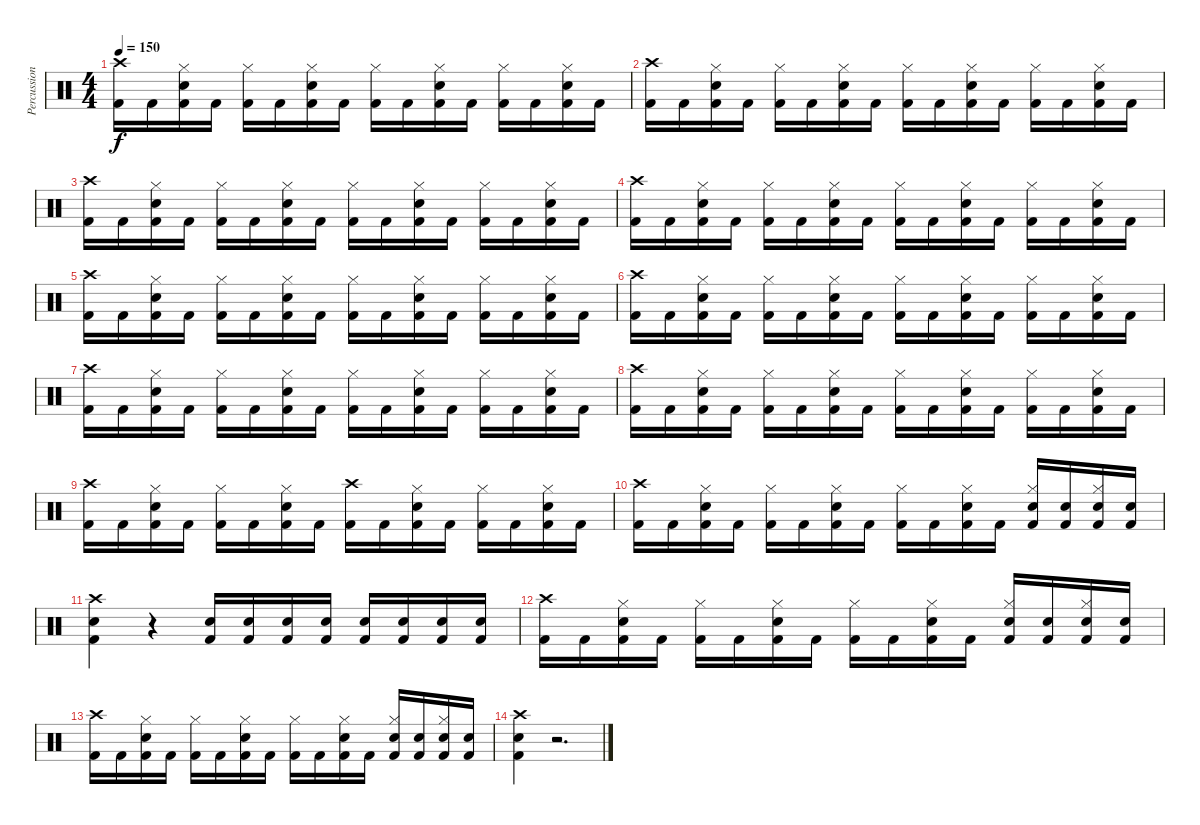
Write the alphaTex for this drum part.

\track ("Percussion" "Percussion") {instrument percussion}
\staff {score}
\articulation defaults
\ts (4 4)
\tempo 150
\clef neutral
\ks c
("Crash high (hit)" "Kick (hit) 2").16{dy f} "Kick (hit) 2".16 ("Hi-Hat (closed)" "Snare (hit) 2" "Kick (hit) 2").16 "Kick (hit) 2".16 ("Hi-Hat (closed)" "Kick (hit) 2").16 "Kick (hit) 2".16 ("Hi-Hat (closed)" "Snare (hit) 2" "Kick (hit) 2").16 "Kick (hit) 2".16 ("Hi-Hat (closed)" "Kick (hit) 2").16 "Kick (hit) 2".16 ("Hi-Hat (closed)" "Snare (hit) 2" "Kick (hit) 2").16 "Kick (hit) 2".16 ("Hi-Hat (closed)" "Kick (hit) 2").16 "Kick (hit) 2".16 ("Hi-Hat (closed)" "Snare (hit) 2" "Kick (hit) 2").16 "Kick (hit) 2".16 |
("Crash high (hit)" "Kick (hit) 2").16 "Kick (hit) 2".16 ("Hi-Hat (closed)" "Snare (hit) 2" "Kick (hit) 2").16 "Kick (hit) 2".16 ("Hi-Hat (closed)" "Kick (hit) 2").16 "Kick (hit) 2".16 ("Hi-Hat (closed)" "Snare (hit) 2" "Kick (hit) 2").16 "Kick (hit) 2".16 ("Hi-Hat (closed)" "Kick (hit) 2").16 "Kick (hit) 2".16 ("Hi-Hat (closed)" "Snare (hit) 2" "Kick (hit) 2").16 "Kick (hit) 2".16 ("Hi-Hat (closed)" "Kick (hit) 2").16 "Kick (hit) 2".16 ("Hi-Hat (closed)" "Snare (hit) 2" "Kick (hit) 2").16 "Kick (hit) 2".16 |
("Crash high (hit)" "Kick (hit) 2").16 "Kick (hit) 2".16 ("Hi-Hat (closed)" "Snare (hit) 2" "Kick (hit) 2").16 "Kick (hit) 2".16 ("Hi-Hat (closed)" "Kick (hit) 2").16 "Kick (hit) 2".16 ("Hi-Hat (closed)" "Snare (hit) 2" "Kick (hit) 2").16 "Kick (hit) 2".16 ("Hi-Hat (closed)" "Kick (hit) 2").16 "Kick (hit) 2".16 ("Hi-Hat (closed)" "Snare (hit) 2" "Kick (hit) 2").16 "Kick (hit) 2".16 ("Hi-Hat (closed)" "Kick (hit) 2").16 "Kick (hit) 2".16 ("Hi-Hat (closed)" "Snare (hit) 2" "Kick (hit) 2").16 "Kick (hit) 2".16 |
("Crash high (hit)" "Kick (hit) 2").16 "Kick (hit) 2".16 ("Hi-Hat (closed)" "Snare (hit) 2" "Kick (hit) 2").16 "Kick (hit) 2".16 ("Hi-Hat (closed)" "Kick (hit) 2").16 "Kick (hit) 2".16 ("Hi-Hat (closed)" "Snare (hit) 2" "Kick (hit) 2").16 "Kick (hit) 2".16 ("Hi-Hat (closed)" "Kick (hit) 2").16 "Kick (hit) 2".16 ("Hi-Hat (closed)" "Snare (hit) 2" "Kick (hit) 2").16 "Kick (hit) 2".16 ("Hi-Hat (closed)" "Kick (hit) 2").16 "Kick (hit) 2".16 ("Hi-Hat (closed)" "Snare (hit) 2" "Kick (hit) 2").16 "Kick (hit) 2".16 |
("Crash high (hit)" "Kick (hit) 2").16 "Kick (hit) 2".16 ("Hi-Hat (closed)" "Snare (hit) 2" "Kick (hit) 2").16 "Kick (hit) 2".16 ("Hi-Hat (closed)" "Kick (hit) 2").16 "Kick (hit) 2".16 ("Hi-Hat (closed)" "Snare (hit) 2" "Kick (hit) 2").16 "Kick (hit) 2".16 ("Hi-Hat (closed)" "Kick (hit) 2").16 "Kick (hit) 2".16 ("Hi-Hat (closed)" "Snare (hit) 2" "Kick (hit) 2").16 "Kick (hit) 2".16 ("Hi-Hat (closed)" "Kick (hit) 2").16 "Kick (hit) 2".16 ("Hi-Hat (closed)" "Snare (hit) 2" "Kick (hit) 2").16 "Kick (hit) 2".16 |
("Crash high (hit)" "Kick (hit) 2").16 "Kick (hit) 2".16 ("Hi-Hat (closed)" "Snare (hit) 2" "Kick (hit) 2").16 "Kick (hit) 2".16 ("Hi-Hat (closed)" "Kick (hit) 2").16 "Kick (hit) 2".16 ("Hi-Hat (closed)" "Snare (hit) 2" "Kick (hit) 2").16 "Kick (hit) 2".16 ("Hi-Hat (closed)" "Kick (hit) 2").16 "Kick (hit) 2".16 ("Hi-Hat (closed)" "Snare (hit) 2" "Kick (hit) 2").16 "Kick (hit) 2".16 ("Hi-Hat (closed)" "Kick (hit) 2").16 "Kick (hit) 2".16 ("Hi-Hat (closed)" "Snare (hit) 2" "Kick (hit) 2").16 "Kick (hit) 2".16 |
("Crash high (hit)" "Kick (hit) 2").16 "Kick (hit) 2".16 ("Hi-Hat (closed)" "Snare (hit) 2" "Kick (hit) 2").16 "Kick (hit) 2".16 ("Hi-Hat (closed)" "Kick (hit) 2").16 "Kick (hit) 2".16 ("Hi-Hat (closed)" "Snare (hit) 2" "Kick (hit) 2").16 "Kick (hit) 2".16 ("Hi-Hat (closed)" "Kick (hit) 2").16 "Kick (hit) 2".16 ("Hi-Hat (closed)" "Snare (hit) 2" "Kick (hit) 2").16 "Kick (hit) 2".16 ("Hi-Hat (closed)" "Kick (hit) 2").16 "Kick (hit) 2".16 ("Hi-Hat (closed)" "Snare (hit) 2" "Kick (hit) 2").16 "Kick (hit) 2".16 |
("Crash high (hit)" "Kick (hit) 2").16 "Kick (hit) 2".16 ("Hi-Hat (closed)" "Snare (hit) 2" "Kick (hit) 2").16 "Kick (hit) 2".16 ("Hi-Hat (closed)" "Kick (hit) 2").16 "Kick (hit) 2".16 ("Hi-Hat (closed)" "Snare (hit) 2" "Kick (hit) 2").16 "Kick (hit) 2".16 ("Hi-Hat (closed)" "Kick (hit) 2").16 "Kick (hit) 2".16 ("Hi-Hat (closed)" "Snare (hit) 2" "Kick (hit) 2").16 "Kick (hit) 2".16 ("Hi-Hat (closed)" "Kick (hit) 2").16 "Kick (hit) 2".16 ("Hi-Hat (closed)" "Snare (hit) 2" "Kick (hit) 2").16 "Kick (hit) 2".16 |
("Crash high (hit)" "Kick (hit) 2").16 "Kick (hit) 2".16 ("Hi-Hat (closed)" "Snare (hit) 2" "Kick (hit) 2").16 "Kick (hit) 2".16 ("Hi-Hat (closed)" "Kick (hit) 2").16 "Kick (hit) 2".16 ("Hi-Hat (closed)" "Snare (hit) 2" "Kick (hit) 2").16 "Kick (hit) 2".16 ("Crash high (hit)" "Kick (hit) 2").16 "Kick (hit) 2".16 ("Hi-Hat (closed)" "Snare (hit) 2" "Kick (hit) 2").16 "Kick (hit) 2".16 ("Hi-Hat (closed)" "Kick (hit) 2").16 "Kick (hit) 2".16 ("Hi-Hat (closed)" "Snare (hit) 2" "Kick (hit) 2").16 "Kick (hit) 2".16 |
("Crash high (hit)" "Kick (hit) 2").16 "Kick (hit) 2".16 ("Hi-Hat (closed)" "Snare (hit) 2" "Kick (hit) 2").16 "Kick (hit) 2".16 ("Hi-Hat (closed)" "Kick (hit) 2").16 "Kick (hit) 2".16 ("Hi-Hat (closed)" "Snare (hit) 2" "Kick (hit) 2").16 "Kick (hit) 2".16 ("Hi-Hat (closed)" "Kick (hit) 2").16 "Kick (hit) 2".16 ("Hi-Hat (closed)" "Snare (hit) 2" "Kick (hit) 2").16 "Kick (hit) 2".16 ("Hi-Hat (closed)" "Snare (hit) 2" "Kick (hit) 2").16 ("Snare (hit) 2" "Kick (hit) 2").16 ("Hi-Hat (closed)" "Snare (hit) 2" "Kick (hit) 2").16 ("Snare (hit) 2" "Kick (hit) 2").16 |
("Crash high (hit)" "Snare (hit) 2" "Kick (hit) 2").4 r.4 ("Snare (hit) 2" "Kick (hit) 2").16 ("Snare (hit) 2" "Kick (hit) 2").16 ("Snare (hit) 2" "Kick (hit) 2").16 ("Snare (hit) 2" "Kick (hit) 2").16 ("Snare (hit) 2" "Kick (hit) 2").16 ("Snare (hit) 2" "Kick (hit) 2").16 ("Snare (hit) 2" "Kick (hit) 2").16 ("Snare (hit) 2" "Kick (hit) 2").16 |
("Crash high (hit)" "Kick (hit) 2").16 "Kick (hit) 2".16 ("Hi-Hat (closed)" "Snare (hit) 2" "Kick (hit) 2").16 "Kick (hit) 2".16 ("Hi-Hat (closed)" "Kick (hit) 2").16 "Kick (hit) 2".16 ("Hi-Hat (closed)" "Snare (hit) 2" "Kick (hit) 2").16 "Kick (hit) 2".16 ("Hi-Hat (closed)" "Kick (hit) 2").16 "Kick (hit) 2".16 ("Hi-Hat (closed)" "Snare (hit) 2" "Kick (hit) 2").16 "Kick (hit) 2".16 ("Hi-Hat (closed)" "Snare (hit) 2" "Kick (hit) 2").16 ("Snare (hit) 2" "Kick (hit) 2").16 ("Hi-Hat (closed)" "Snare (hit) 2" "Kick (hit) 2").16 ("Snare (hit) 2" "Kick (hit) 2").16 |
("Crash high (hit)" "Kick (hit) 2").16 "Kick (hit) 2".16 ("Hi-Hat (closed)" "Snare (hit) 2" "Kick (hit) 2").16 "Kick (hit) 2".16 ("Hi-Hat (closed)" "Kick (hit) 2").16 "Kick (hit) 2".16 ("Hi-Hat (closed)" "Snare (hit) 2" "Kick (hit) 2").16 "Kick (hit) 2".16 ("Hi-Hat (closed)" "Kick (hit) 2").16 "Kick (hit) 2".16 ("Hi-Hat (closed)" "Snare (hit) 2" "Kick (hit) 2").16 "Kick (hit) 2".16 ("Hi-Hat (closed)" "Snare (hit) 2" "Kick (hit) 2").16 ("Snare (hit) 2" "Kick (hit) 2").16 ("Hi-Hat (closed)" "Snare (hit) 2" "Kick (hit) 2").16 ("Snare (hit) 2" "Kick (hit) 2").16 |
("Crash high (hit)" "Snare (hit) 2" "Kick (hit) 2").4 r.2{d}
